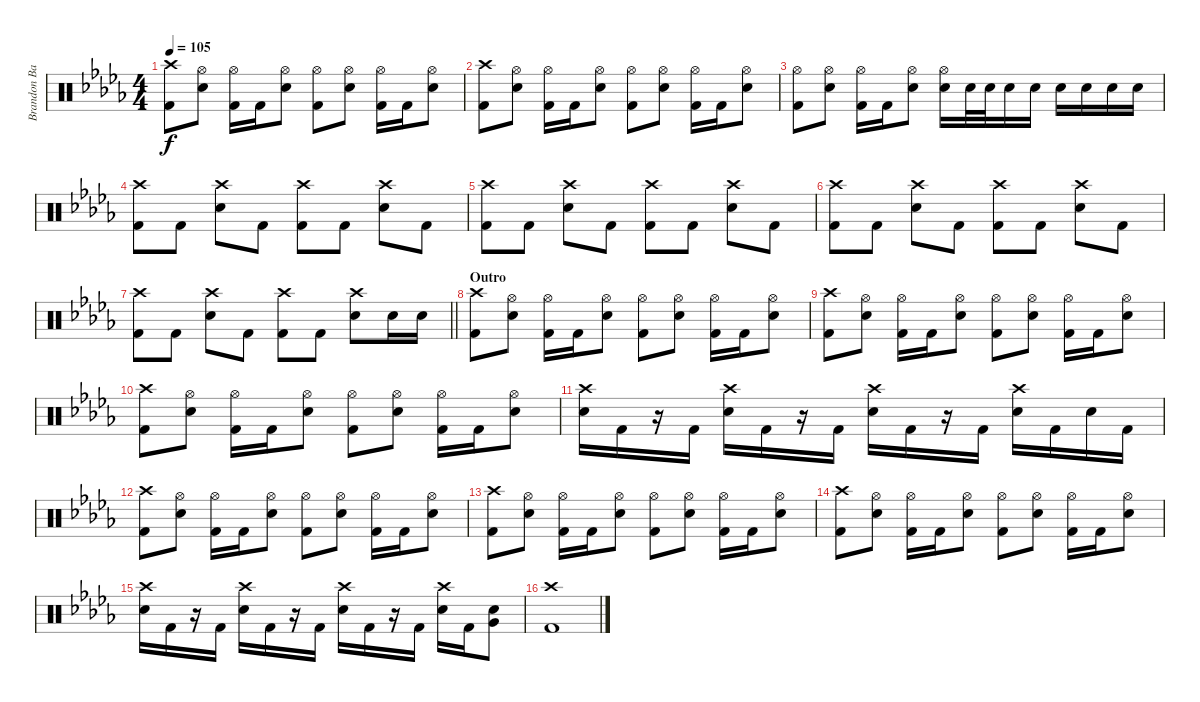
\track ("Brandon Barnes - Drums" "Brandon Ba") {instrument percussion}
\staff {score}
\articulation defaults
\ts (4 4)
\tempo 105
\clef neutral
\ks db
("Crash high (hit)" "Kick (hit) 2").8{dy f} ("Snare (hit) 2" "Hi-Hat (open)").8 ("Kick (hit) 2" "Hi-Hat (open)").16 "Kick (hit) 2".16 ("Snare (hit) 2" "Hi-Hat (open)").8 ("Hi-Hat (open)" "Kick (hit) 2").8 ("Snare (hit) 2" "Hi-Hat (open)").8 ("Kick (hit) 2" "Hi-Hat (open)").16 "Kick (hit) 2".16 ("Snare (hit) 2" "Hi-Hat (open)").8 |
("Crash high (hit)" "Kick (hit) 2").8 ("Snare (hit) 2" "Hi-Hat (open)").8 ("Kick (hit) 2" "Hi-Hat (open)").16 "Kick (hit) 2".16 ("Snare (hit) 2" "Hi-Hat (open)").8 ("Hi-Hat (open)" "Kick (hit) 2").8 ("Snare (hit) 2" "Hi-Hat (open)").8 ("Kick (hit) 2" "Hi-Hat (open)").16 "Kick (hit) 2".16 ("Snare (hit) 2" "Hi-Hat (open)").8 |
("Hi-Hat (open)" "Kick (hit) 2").8 ("Snare (hit) 2" "Hi-Hat (open)").8 ("Kick (hit) 2" "Hi-Hat (open)").16 "Kick (hit) 2".16 ("Snare (hit) 2" "Hi-Hat (open)").8 ("Snare (hit) 2" "Hi-Hat (open)").16 "Snare (hit) 2".32 "Snare (hit) 2".32 "Snare (hit) 2".16 "Snare (hit) 2".16 "Snare (hit) 2".16 "Snare (hit) 2".16 "Snare (hit) 2".16 "Snare (hit) 2".16 |
("Crash high (hit)" "Kick (hit) 2").8 "Kick (hit) 2".8 ("Snare (hit) 2" "Crash high (hit)").8 "Kick (hit) 2".8 ("Crash high (hit)" "Kick (hit) 2").8 "Kick (hit) 2".8 ("Snare (hit) 2" "Crash high (hit)").8 "Kick (hit) 2".8 |
("Crash high (hit)" "Kick (hit) 2").8 "Kick (hit) 2".8 ("Snare (hit) 2" "Crash high (hit)").8 "Kick (hit) 2".8 ("Crash high (hit)" "Kick (hit) 2").8 "Kick (hit) 2".8 ("Snare (hit) 2" "Crash high (hit)").8 "Kick (hit) 2".8 |
("Crash high (hit)" "Kick (hit) 2").8 "Kick (hit) 2".8 ("Snare (hit) 2" "Crash high (hit)").8 "Kick (hit) 2".8 ("Crash high (hit)" "Kick (hit) 2").8 "Kick (hit) 2".8 ("Snare (hit) 2" "Crash high (hit)").8 "Kick (hit) 2".8 |
\barLineRight lightlight
("Crash high (hit)" "Kick (hit) 2").8 "Kick (hit) 2".8 ("Snare (hit) 2" "Crash high (hit)").8 "Kick (hit) 2".8 ("Crash high (hit)" "Kick (hit) 2").8 "Kick (hit) 2".8 ("Snare (hit) 2" "Crash high (hit)").8 "Snare (hit) 2".16 "Snare (hit) 2".16 |
\section ("" "Outro")
("Crash high (hit)" "Kick (hit) 2").8 ("Snare (hit) 2" "Hi-Hat (open)").8 ("Kick (hit) 2" "Hi-Hat (open)").16 "Kick (hit) 2".16 ("Snare (hit) 2" "Hi-Hat (open)").8 ("Hi-Hat (open)" "Kick (hit) 2").8 ("Snare (hit) 2" "Hi-Hat (open)").8 ("Kick (hit) 2" "Hi-Hat (open)").16 "Kick (hit) 2".16 ("Snare (hit) 2" "Hi-Hat (open)").8 |
("Crash high (hit)" "Kick (hit) 2").8 ("Snare (hit) 2" "Hi-Hat (open)").8 ("Kick (hit) 2" "Hi-Hat (open)").16 "Kick (hit) 2".16 ("Snare (hit) 2" "Hi-Hat (open)").8 ("Hi-Hat (open)" "Kick (hit) 2").8 ("Snare (hit) 2" "Hi-Hat (open)").8 ("Kick (hit) 2" "Hi-Hat (open)").16 "Kick (hit) 2".16 ("Snare (hit) 2" "Hi-Hat (open)").8 |
("Crash high (hit)" "Kick (hit) 2").8 ("Snare (hit) 2" "Hi-Hat (open)").8 ("Kick (hit) 2" "Hi-Hat (open)").16 "Kick (hit) 2".16 ("Snare (hit) 2" "Hi-Hat (open)").8 ("Hi-Hat (open)" "Kick (hit) 2").8 ("Snare (hit) 2" "Hi-Hat (open)").8 ("Kick (hit) 2" "Hi-Hat (open)").16 "Kick (hit) 2".16 ("Snare (hit) 2" "Hi-Hat (open)").8 |
("Crash high (hit)" "Snare (hit) 2").16 "Kick (hit) 2".16 r.16 "Kick (hit) 2".16 ("Snare (hit) 2" "Crash high (hit)").16 "Kick (hit) 2".16 r.16 "Kick (hit) 2".16 ("Snare (hit) 2" "Crash high (hit)").16 "Kick (hit) 2".16 r.16 "Kick (hit) 2".16 ("Crash high (hit)" "Snare (hit) 2").16 "Kick (hit) 2".16 "Snare (hit) 2".16 "Kick (hit) 2".16 |
("Crash high (hit)" "Kick (hit) 2").8 ("Snare (hit) 2" "Hi-Hat (open)").8 ("Kick (hit) 2" "Hi-Hat (open)").16 "Kick (hit) 2".16 ("Snare (hit) 2" "Hi-Hat (open)").8 ("Hi-Hat (open)" "Kick (hit) 2").8 ("Snare (hit) 2" "Hi-Hat (open)").8 ("Kick (hit) 2" "Hi-Hat (open)").16 "Kick (hit) 2".16 ("Snare (hit) 2" "Hi-Hat (open)").8 |
("Crash high (hit)" "Kick (hit) 2").8 ("Snare (hit) 2" "Hi-Hat (open)").8 ("Kick (hit) 2" "Hi-Hat (open)").16 "Kick (hit) 2".16 ("Snare (hit) 2" "Hi-Hat (open)").8 ("Hi-Hat (open)" "Kick (hit) 2").8 ("Snare (hit) 2" "Hi-Hat (open)").8 ("Kick (hit) 2" "Hi-Hat (open)").16 "Kick (hit) 2".16 ("Snare (hit) 2" "Hi-Hat (open)").8 |
("Crash high (hit)" "Kick (hit) 2").8 ("Snare (hit) 2" "Hi-Hat (open)").8 ("Kick (hit) 2" "Hi-Hat (open)").16 "Kick (hit) 2".16 ("Snare (hit) 2" "Hi-Hat (open)").8 ("Hi-Hat (open)" "Kick (hit) 2").8 ("Snare (hit) 2" "Hi-Hat (open)").8 ("Kick (hit) 2" "Hi-Hat (open)").16 "Kick (hit) 2".16 ("Snare (hit) 2" "Hi-Hat (open)").8 |
("Crash high (hit)" "Snare (hit) 2").16 "Kick (hit) 2".16 r.16 "Kick (hit) 2".16 ("Snare (hit) 2" "Crash high (hit)").16 "Kick (hit) 2".16 r.16 "Kick (hit) 2".16 ("Snare (hit) 2" "Crash high (hit)").16 "Kick (hit) 2".16 r.16 "Kick (hit) 2".16 ("Crash high (hit)" "Snare (hit) 2").16 "Kick (hit) 2".16 ("Very Low Tom (hit)" "Snare (hit) 2").8 |
("Crash high (hit)" "Kick (hit) 2").1
